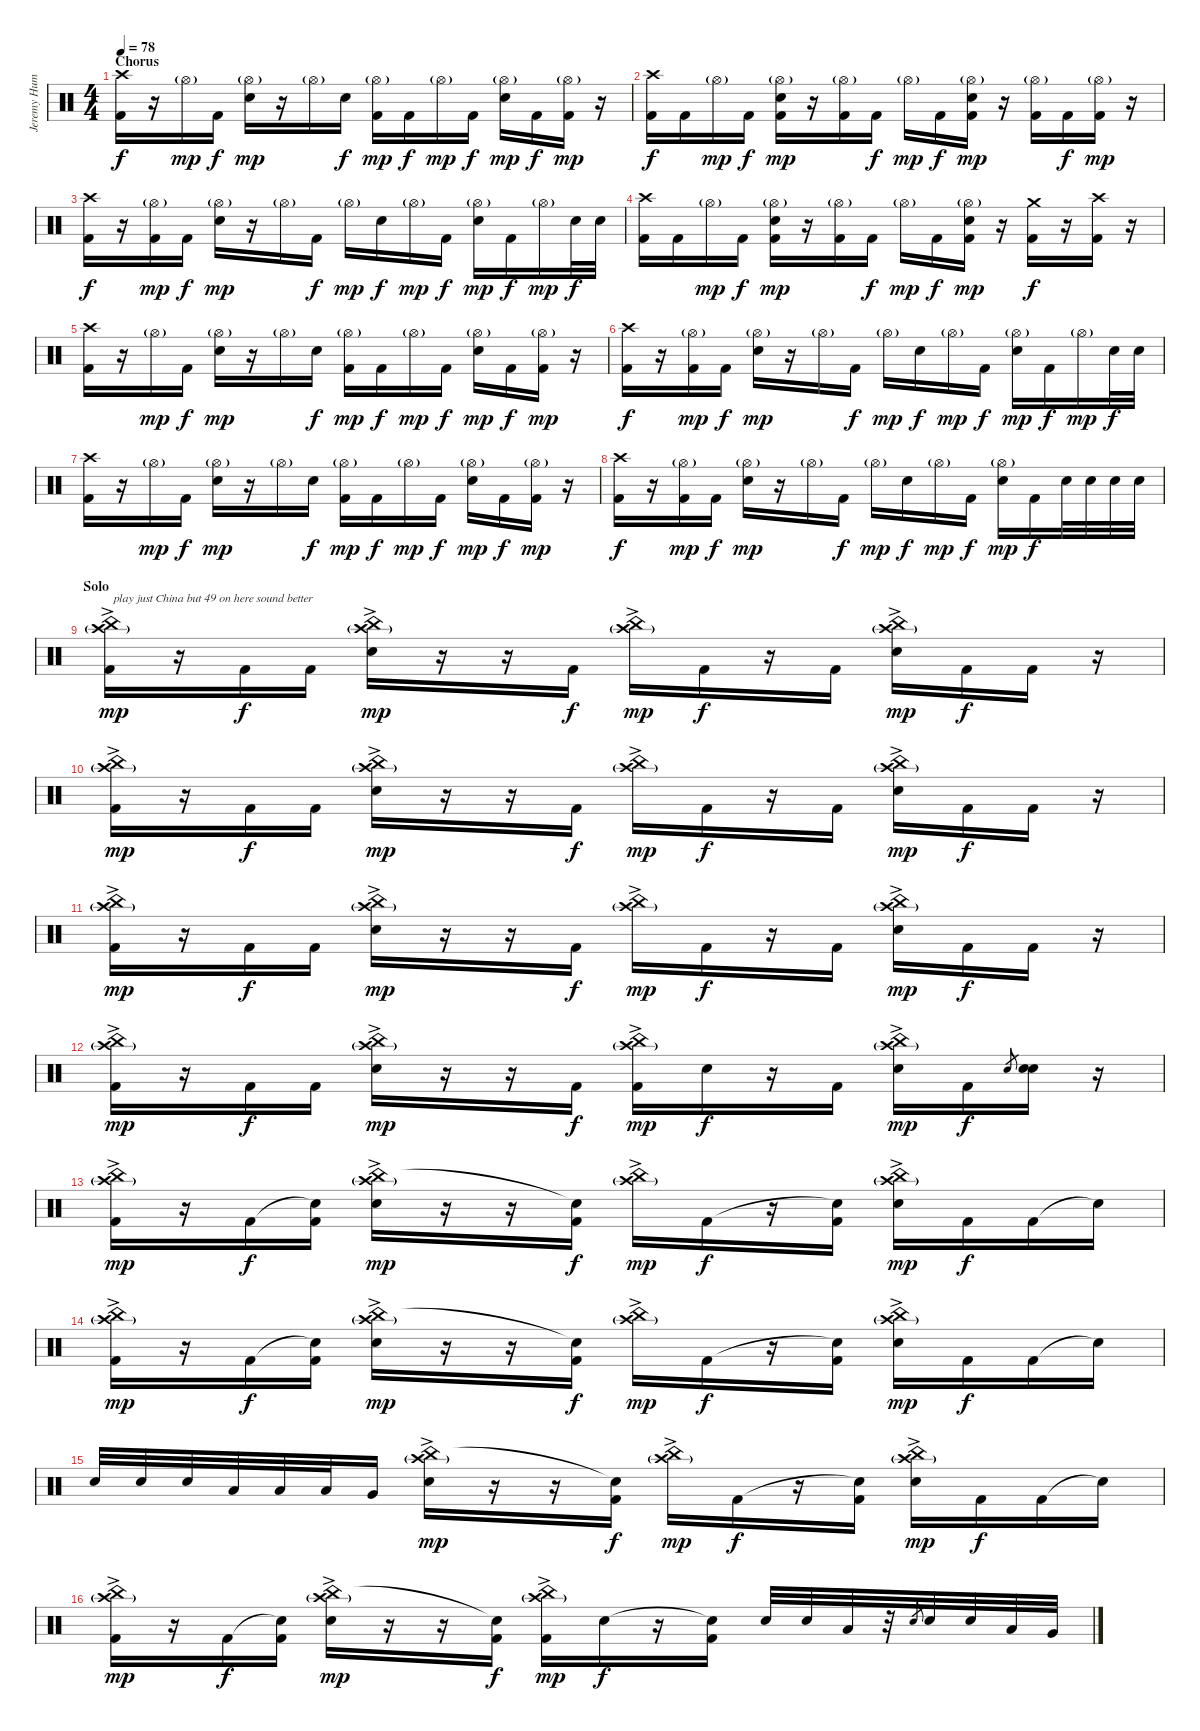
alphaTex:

\track ("Jeremy Hummel" "Jeremy Hum") {instrument percussion}
\staff {score}
\articulation defaults
\ts (4 4)
\section ("" "Chorus")
\tempo 78
\clef neutral
\ks c
("Crash high (hit)" "Kick (hit) 2").16{dy f} r.16 "Hi-Hat (open)"{g}.16{dy mp} "Kick (hit) 2".16{dy f} ("Hi-Hat (open)"{g} "Snare (hit) 2").16{dy mp} r.16 "Hi-Hat (open)"{g}.16 "Snare (hit) 2".16{dy f} ("Hi-Hat (open)"{g} "Kick (hit) 2").16{dy mp} "Kick (hit) 2".16{dy f} "Hi-Hat (open)"{g}.16{dy mp} "Kick (hit) 2".16{dy f} ("Hi-Hat (open)"{g} "Snare (hit) 2").16{dy mp} "Kick (hit) 2".16{dy f} ("Hi-Hat (open)"{g} "Kick (hit) 2").16{dy mp} r.16 |
("Crash high (hit)" "Kick (hit) 2").16{dy f} "Kick (hit) 2".16 "Hi-Hat (open)"{g}.16{dy mp} "Kick (hit) 2".16{dy f} ("Hi-Hat (open)"{g} "Snare (hit) 2" "Kick (hit) 2").16{dy mp} r.16 ("Hi-Hat (open)"{g} "Kick (hit) 2").16 "Kick (hit) 2".16{dy f} "Hi-Hat (open)"{g}.16{dy mp} "Kick (hit) 2".16{dy f} ("Hi-Hat (open)"{g} "Snare (hit) 2" "Kick (hit) 2").16{dy mp} r.16 ("Hi-Hat (open)"{g} "Kick (hit) 2").16 "Kick (hit) 2".16{dy f} ("Hi-Hat (open)"{g} "Kick (hit) 2").16{dy mp} r.16 |
("Crash high (hit)" "Kick (hit) 2").16{dy f} r.16 ("Hi-Hat (open)"{g} "Kick (hit) 2").16{dy mp} "Kick (hit) 2".16{dy f} ("Hi-Hat (open)"{g} "Snare (hit) 2").16{dy mp} r.16 "Hi-Hat (open)"{g}.16 "Kick (hit) 2".16{dy f} "Hi-Hat (open)"{g}.16{dy mp} "Snare (hit) 2".16{dy f} "Hi-Hat (open)"{g}.16{dy mp} "Kick (hit) 2".16{dy f} ("Hi-Hat (open)"{g} "Snare (hit) 2").16{dy mp} "Kick (hit) 2".16{dy f} "Hi-Hat (open)"{g}.16{dy mp} "Snare (hit) 2".32{dy f} "Snare (hit) 2".32 |
("Crash high (hit)" "Kick (hit) 2").16 "Kick (hit) 2".16 "Hi-Hat (open)"{g}.16{dy mp} "Kick (hit) 2".16{dy f} ("Hi-Hat (open)"{g} "Snare (hit) 2" "Kick (hit) 2").16{dy mp} r.16 ("Hi-Hat (open)"{g} "Kick (hit) 2").16 "Kick (hit) 2".16{dy f} "Hi-Hat (open)"{g}.16{dy mp} "Kick (hit) 2".16{dy f} ("Hi-Hat (open)"{g} "Snare (hit) 2" "Kick (hit) 2").16{dy mp} r.16 ("Crash medium (hit)" "Kick (hit) 2").16{dy f} r.16 ("Crash high (hit)" "Kick (hit) 2").16 r.16 |
("Crash high (hit)" "Kick (hit) 2").16 r.16 "Hi-Hat (open)"{g}.16{dy mp} "Kick (hit) 2".16{dy f} ("Hi-Hat (open)"{g} "Snare (hit) 2").16{dy mp} r.16 "Hi-Hat (open)"{g}.16 "Snare (hit) 2".16{dy f} ("Hi-Hat (open)"{g} "Kick (hit) 2").16{dy mp} "Kick (hit) 2".16{dy f} "Hi-Hat (open)"{g}.16{dy mp} "Kick (hit) 2".16{dy f} ("Hi-Hat (open)"{g} "Snare (hit) 2").16{dy mp} "Kick (hit) 2".16{dy f} ("Hi-Hat (open)"{g} "Kick (hit) 2").16{dy mp} r.16 |
("Crash high (hit)" "Kick (hit) 2").16{dy f} r.16 ("Hi-Hat (open)"{g} "Kick (hit) 2").16{dy mp} "Kick (hit) 2".16{dy f} ("Hi-Hat (open)"{g} "Snare (hit) 2").16{dy mp} r.16 "Hi-Hat (open)"{g}.16 "Kick (hit) 2".16{dy f} "Hi-Hat (open)"{g}.16{dy mp} "Snare (hit) 2".16{dy f} "Hi-Hat (open)"{g}.16{dy mp} "Kick (hit) 2".16{dy f} ("Hi-Hat (open)"{g} "Snare (hit) 2").16{dy mp} "Kick (hit) 2".16{dy f} "Hi-Hat (open)"{g}.16{dy mp} "Snare (hit) 2".32{dy f} "Snare (hit) 2".32 |
("Crash high (hit)" "Kick (hit) 2").16 r.16 "Hi-Hat (open)"{g}.16{dy mp} "Kick (hit) 2".16{dy f} ("Hi-Hat (open)"{g} "Snare (hit) 2").16{dy mp} r.16 "Hi-Hat (open)"{g}.16 "Snare (hit) 2".16{dy f} ("Hi-Hat (open)"{g} "Kick (hit) 2").16{dy mp} "Kick (hit) 2".16{dy f} "Hi-Hat (open)"{g}.16{dy mp} "Kick (hit) 2".16{dy f} ("Hi-Hat (open)"{g} "Snare (hit) 2").16{dy mp} "Kick (hit) 2".16{dy f} ("Hi-Hat (open)"{g} "Kick (hit) 2").16{dy mp} r.16 |
("Crash high (hit)" "Kick (hit) 2").16{dy f} r.16 ("Hi-Hat (open)"{g} "Kick (hit) 2").16{dy mp} "Kick (hit) 2".16{dy f} ("Hi-Hat (open)"{g} "Snare (hit) 2").16{dy mp} r.16 "Hi-Hat (open)"{g}.16 "Kick (hit) 2".16{dy f} "Hi-Hat (open)"{g}.16{dy mp} "Snare (hit) 2".16{dy f} "Hi-Hat (open)"{g}.16{dy mp} "Kick (hit) 2".16{dy f} ("Hi-Hat (open)"{g} "Snare (hit) 2").16{dy mp} "Kick (hit) 2".16{dy f} "Snare (hit) 2".32 "Snare (hit) 2".32 "Snare (hit) 2".32 "Snare (hit) 2".32 |
\section ("" "Solo")
("China (hit)"{ac} "Crash high (hit)"{g} "Kick (hit) 2").16{txt "play just China but 49 on here sound better" dy mp} r.16 "Kick (hit) 2".16{dy f} "Kick (hit) 2".16 ("China (hit)"{ac} "Crash high (hit)"{g} "Snare (hit) 2").16{dy mp} r.16 r.16 "Kick (hit) 2".16{dy f} ("China (hit)"{ac} "Crash high (hit)"{g}).16{dy mp} "Kick (hit) 2".16{dy f} r.16 "Kick (hit) 2".16 ("China (hit)"{ac} "Crash high (hit)"{g} "Snare (hit) 2").16{dy mp} "Kick (hit) 2".16{dy f} "Kick (hit) 2".16 r.16 |
("China (hit)"{ac} "Crash high (hit)"{g} "Kick (hit) 2").16{dy mp} r.16 "Kick (hit) 2".16{dy f} "Kick (hit) 2".16 ("China (hit)"{ac} "Crash high (hit)"{g} "Snare (hit) 2").16{dy mp} r.16 r.16 "Kick (hit) 2".16{dy f} ("China (hit)"{ac} "Crash high (hit)"{g}).16{dy mp} "Kick (hit) 2".16{dy f} r.16 "Kick (hit) 2".16 ("China (hit)"{ac} "Crash high (hit)"{g} "Snare (hit) 2").16{dy mp} "Kick (hit) 2".16{dy f} "Kick (hit) 2".16 r.16 |
("China (hit)"{ac} "Crash high (hit)"{g} "Kick (hit) 2").16{dy mp} r.16 "Kick (hit) 2".16{dy f} "Kick (hit) 2".16 ("China (hit)"{ac} "Crash high (hit)"{g} "Snare (hit) 2").16{dy mp} r.16 r.16 "Kick (hit) 2".16{dy f} ("China (hit)"{ac} "Crash high (hit)"{g}).16{dy mp} "Kick (hit) 2".16{dy f} r.16 "Kick (hit) 2".16 ("China (hit)"{ac} "Crash high (hit)"{g} "Snare (hit) 2").16{dy mp} "Kick (hit) 2".16{dy f} "Kick (hit) 2".16 r.16 |
("China (hit)"{ac} "Crash high (hit)"{g} "Kick (hit) 2").16{dy mp} r.16 "Kick (hit) 2".16{dy f} "Kick (hit) 2".16 ("China (hit)"{ac} "Crash high (hit)"{g} "Snare (hit) 2").16{dy mp} r.16 r.16 "Kick (hit) 2".16{dy f} ("China (hit)"{ac} "Crash high (hit)"{g} "Kick (hit) 2").16{dy mp} "Snare (hit) 2".16{dy f} r.16 "Kick (hit) 2".16 ("China (hit)"{ac} "Crash high (hit)"{g} "Snare (hit) 2").16{dy mp} "Kick (hit) 2".16{dy f} "Snare (hit) 2".8{gr} ("Snare (hit) 2" "Snare (hit) 2").16 r.16 |
("China (hit)"{ac} "Crash high (hit)"{g} "Kick (hit) 2").16{dy mp} r.16 "Kick (hit) 2".16{dy f} ("Snare (hit)"{t} "Kick (hit) 2").16 ("China (hit)"{ac} "Crash high (hit)"{g} "Snare (hit) 2").16{dy mp} r.16 r.16 ("Snare (hit)"{t} "Kick (hit) 2").16{dy f} ("China (hit)"{ac} "Crash high (hit)"{g}).16{dy mp} "Kick (hit) 2".16{dy f} r.16 ("Snare (hit)"{t} "Kick (hit) 2").16 ("China (hit)"{ac} "Crash high (hit)"{g} "Snare (hit) 2").16{dy mp} "Kick (hit) 2".16{dy f} "Kick (hit) 2".16 "Snare (hit)"{t}.16 |
("China (hit)"{ac} "Crash high (hit)"{g} "Kick (hit) 2").16{dy mp} r.16 "Kick (hit) 2".16{dy f} ("Snare (hit)"{t} "Kick (hit) 2").16 ("China (hit)"{ac} "Crash high (hit)"{g} "Snare (hit) 2").16{dy mp} r.16 r.16 ("Snare (hit)"{t} "Kick (hit) 2").16{dy f} ("China (hit)"{ac} "Crash high (hit)"{g}).16{dy mp} "Kick (hit) 2".16{dy f} r.16 ("Snare (hit)"{t} "Kick (hit) 2").16 ("China (hit)"{ac} "Crash high (hit)"{g} "Snare (hit) 2").16{dy mp} "Kick (hit) 2".16{dy f} "Kick (hit) 2".16 "Snare (hit)"{t}.16 |
"Snare (hit) 2".32 "Snare (hit) 2".32 "Snare (hit) 2".32 "Low Tom (hit)".32 "Low Tom (hit)".32 "Low Tom (hit)".32 "Very Low Tom (hit)".16 ("China (hit)"{ac} "Crash high (hit)"{g} "Snare (hit) 2").16{dy mp} r.16 r.16 ("Snare (hit)"{t} "Kick (hit) 2").16{dy f} ("China (hit)"{ac} "Crash high (hit)"{g}).16{dy mp} "Kick (hit) 2".16{dy f} r.16 ("Snare (hit)"{t} "Kick (hit) 2").16 ("China (hit)"{ac} "Crash high (hit)"{g} "Snare (hit) 2").16{dy mp} "Kick (hit) 2".16{dy f} "Kick (hit) 2".16 "Snare (hit)"{t}.16 |
("China (hit)"{ac} "Crash high (hit)"{g} "Kick (hit) 2").16{dy mp} r.16 "Kick (hit) 2".16{dy f} ("Snare (hit)"{t} "Kick (hit) 2").16 ("China (hit)"{ac} "Crash high (hit)"{g} "Snare (hit) 2").16{dy mp} r.16 r.16 ("Snare (hit)"{t} "Kick (hit) 2").16{dy f} ("China (hit)"{ac} "Crash high (hit)"{g} "Kick (hit) 2").16{dy mp} "Snare (hit) 2".16{dy f} r.16 ("Snare (hit)"{t} "Kick (hit) 2").16 "Snare (hit) 2".32 "Snare (hit) 2".32 "Low Tom (hit)".32 r.32 "Snare (hit) 2".8{gr} "Snare (hit) 2".32 "Snare (hit) 2".32 "Low Tom (hit)".32 "Very Low Tom (hit)".32
